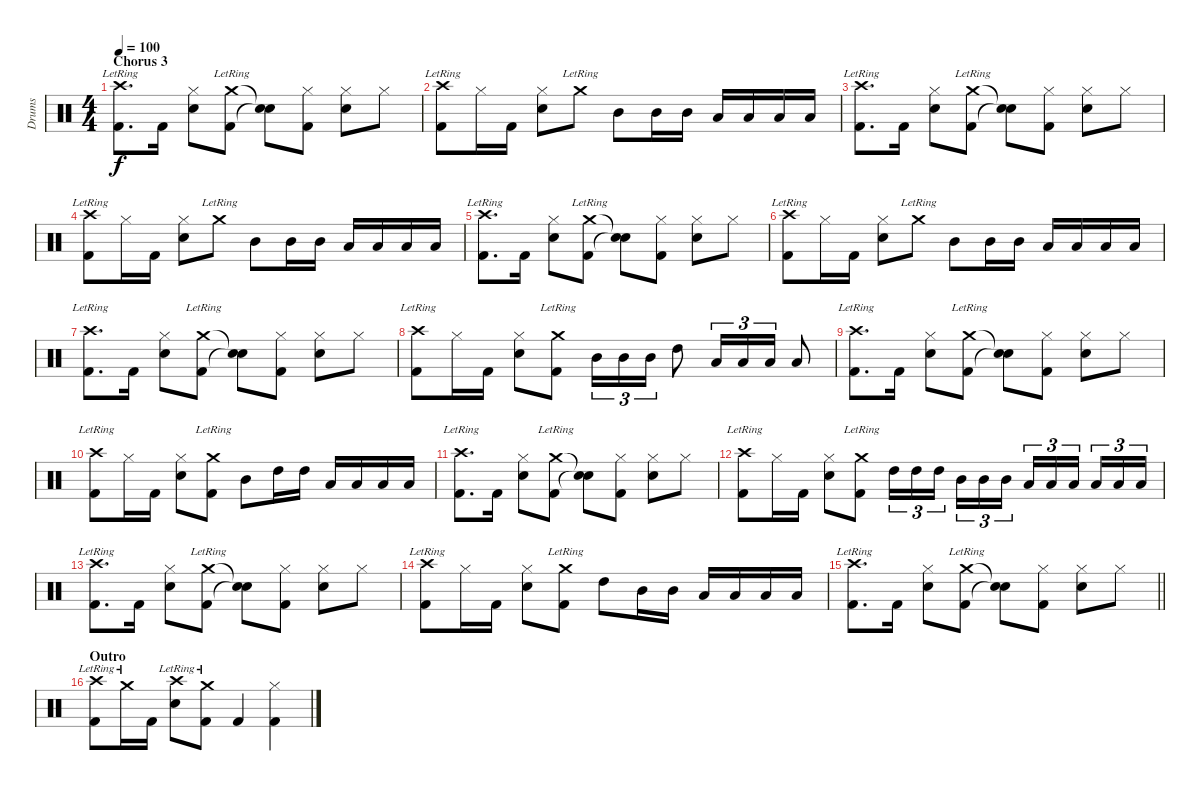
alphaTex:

\track ("Drums" "Drums") {instrument percussion}
\staff {score}
\articulation defaults
\ts (4 4)
\section ("" "Chorus 3")
\tempo 100
\clef neutral
\ks c
("Crash high (hit)"{lr} "Kick (hit) 2").8{d dy f} "Kick (hit) 2".16 ("Hi-Hat (closed)" "Snare (hit) 2").8 ("Crash medium (hit)"{lr} "Kick (hit) 2").8 ("Snare (hit)"{t} "Snare (hit)"{t}).8 ("Hi-Hat (closed)" "Kick (hit) 2").8 ("Hi-Hat (closed)" "Snare (hit) 2").8 "Hi-Hat (closed)".8 |
("Crash high (hit)"{lr} "Kick (hit) 2").8 "Hi-Hat (closed)".16 "Kick (hit) 2".16 ("Hi-Hat (closed)" "Snare (hit) 2").8 "Crash medium (hit)"{lr}.8 "Mid Tom (hit)".8 "Mid Tom (hit)".16 "Mid Tom (hit)".16 "Low Tom (hit)".16 "Low Tom (hit)".16 "Low Tom (hit)".16 "Low Tom (hit)".16 |
("Crash high (hit)"{lr} "Kick (hit) 2").8{d} "Kick (hit) 2".16 ("Hi-Hat (closed)" "Snare (hit) 2").8 ("Crash medium (hit)"{lr} "Kick (hit) 2").8 ("Snare (hit)"{t} "Snare (hit)"{t}).8 ("Hi-Hat (closed)" "Kick (hit) 2").8 ("Hi-Hat (closed)" "Snare (hit) 2").8 "Hi-Hat (closed)".8 |
("Crash high (hit)"{lr} "Kick (hit) 2").8 "Hi-Hat (closed)".16 "Kick (hit) 2".16 ("Hi-Hat (closed)" "Snare (hit) 2").8 "Crash medium (hit)"{lr}.8 "Mid Tom (hit)".8 "Mid Tom (hit)".16 "Mid Tom (hit)".16 "Low Tom (hit)".16 "Low Tom (hit)".16 "Low Tom (hit)".16 "Low Tom (hit)".16 |
("Crash high (hit)"{lr} "Kick (hit) 2").8{d} "Kick (hit) 2".16 ("Hi-Hat (closed)" "Snare (hit) 2").8 ("Crash medium (hit)"{lr} "Kick (hit) 2").8 ("Snare (hit)"{t} "Snare (hit)"{t}).8 ("Hi-Hat (closed)" "Kick (hit) 2").8 ("Hi-Hat (closed)" "Snare (hit) 2").8 "Hi-Hat (closed)".8 |
("Crash high (hit)"{lr} "Kick (hit) 2").8 "Hi-Hat (closed)".16 "Kick (hit) 2".16 ("Hi-Hat (closed)" "Snare (hit) 2").8 "Crash medium (hit)"{lr}.8 "Mid Tom (hit)".8 "Mid Tom (hit)".16 "Mid Tom (hit)".16 "Low Tom (hit)".16 "Low Tom (hit)".16 "Low Tom (hit)".16 "Low Tom (hit)".16 |
("Crash high (hit)"{lr} "Kick (hit) 2").8{d} "Kick (hit) 2".16 ("Hi-Hat (closed)" "Snare (hit) 2").8 ("Crash medium (hit)"{lr} "Kick (hit) 2").8 ("Snare (hit)"{t} "Snare (hit)"{t}).8 ("Hi-Hat (closed)" "Kick (hit) 2").8 ("Hi-Hat (closed)" "Snare (hit) 2").8 "Hi-Hat (closed)".8 |
("Crash high (hit)"{lr} "Kick (hit) 2").8 "Hi-Hat (closed)".16 "Kick (hit) 2".16 ("Hi-Hat (closed)" "Snare (hit) 2").8 ("Crash medium (hit)"{lr} "Kick (hit) 2").8 "Mid Tom (hit)".16{tu (3 2)} "Mid Tom (hit)".16{tu (3 2)} "Mid Tom (hit)".16{tu (3 2)} "High Tom (hit)".8 "Low Tom (hit)".16{tu (3 2)} "Low Tom (hit)".16{tu (3 2)} "Low Tom (hit)".16{tu (3 2)} "Low Tom (hit)".8 |
("Crash high (hit)"{lr} "Kick (hit) 2").8{d} "Kick (hit) 2".16 ("Hi-Hat (closed)" "Snare (hit) 2").8 ("Crash medium (hit)"{lr} "Kick (hit) 2").8 ("Snare (hit)"{t} "Snare (hit)"{t}).8 ("Hi-Hat (closed)" "Kick (hit) 2").8 ("Hi-Hat (closed)" "Snare (hit) 2").8 "Hi-Hat (closed)".8 |
("Crash high (hit)"{lr} "Kick (hit) 2").8 "Hi-Hat (closed)".16 "Kick (hit) 2".16 ("Hi-Hat (closed)" "Snare (hit) 2").8 ("Crash medium (hit)"{lr} "Kick (hit) 2").8 "Mid Tom (hit)".8 "High Tom (hit)".16 "High Tom (hit)".16 "Low Tom (hit)".16 "Low Tom (hit)".16 "Low Tom (hit)".16 "Low Tom (hit)".16 |
("Crash high (hit)"{lr} "Kick (hit) 2").8{d} "Kick (hit) 2".16 ("Hi-Hat (closed)" "Snare (hit) 2").8 ("Crash medium (hit)"{lr} "Kick (hit) 2").8 ("Snare (hit)"{t} "Snare (hit)"{t}).8 ("Hi-Hat (closed)" "Kick (hit) 2").8 ("Hi-Hat (closed)" "Snare (hit) 2").8 "Hi-Hat (closed)".8 |
("Crash high (hit)"{lr} "Kick (hit) 2").8 "Hi-Hat (closed)".16 "Kick (hit) 2".16 ("Hi-Hat (closed)" "Snare (hit) 2").8 ("Crash medium (hit)"{lr} "Kick (hit) 2").8 "High Tom (hit)".16{tu (3 2)} "High Tom (hit)".16{tu (3 2)} "High Tom (hit)".16{tu (3 2) beam splitsecondary} "Mid Tom (hit)".16{tu (3 2)} "Mid Tom (hit)".16{tu (3 2)} "Mid Tom (hit)".16{tu (3 2)} "Low Tom (hit)".16{tu (3 2)} "Low Tom (hit)".16{tu (3 2)} "Low Tom (hit)".16{tu (3 2) beam splitsecondary} "Low Tom (hit)".16{tu (3 2)} "Low Tom (hit)".16{tu (3 2)} "Low Tom (hit)".16{tu (3 2)} |
("Crash high (hit)"{lr} "Kick (hit) 2").8{d} "Kick (hit) 2".16 ("Hi-Hat (closed)" "Snare (hit) 2").8 ("Crash medium (hit)"{lr} "Kick (hit) 2").8 ("Snare (hit)"{t} "Snare (hit)"{t}).8 ("Hi-Hat (closed)" "Kick (hit) 2").8 ("Hi-Hat (closed)" "Snare (hit) 2").8 "Hi-Hat (closed)".8 |
("Crash high (hit)"{lr} "Kick (hit) 2").8 "Hi-Hat (closed)".16 "Kick (hit) 2".16 ("Hi-Hat (closed)" "Snare (hit) 2").8 ("Crash medium (hit)"{lr} "Kick (hit) 2").8 "High Tom (hit)".8 "Mid Tom (hit)".16 "Mid Tom (hit)".16 "Low Tom (hit)".16 "Low Tom (hit)".16 "Low Tom (hit)".16 "Low Tom (hit)".16 |
\barLineRight lightlight
("Crash high (hit)"{lr} "Kick (hit) 2").8{d} "Kick (hit) 2".16 ("Hi-Hat (closed)" "Snare (hit) 2").8 ("Crash medium (hit)"{lr} "Kick (hit) 2").8 ("Snare (hit)"{t} "Snare (hit)"{t}).8 ("Hi-Hat (closed)" "Kick (hit) 2").8 ("Hi-Hat (closed)" "Snare (hit) 2").8 "Hi-Hat (closed)".8 |
\section ("" "Outro")
("Crash high (hit)"{lr} "Kick (hit) 2").8 "Crash medium (hit)"{lr}.16 "Kick (hit) 2".16 ("Crash high (hit)"{lr} "Snare (hit) 2").8 ("Crash medium (hit)"{lr} "Kick (hit) 2").8 "Kick (hit) 2".4 ("Hi-Hat (closed)" "Kick (hit) 2").4
